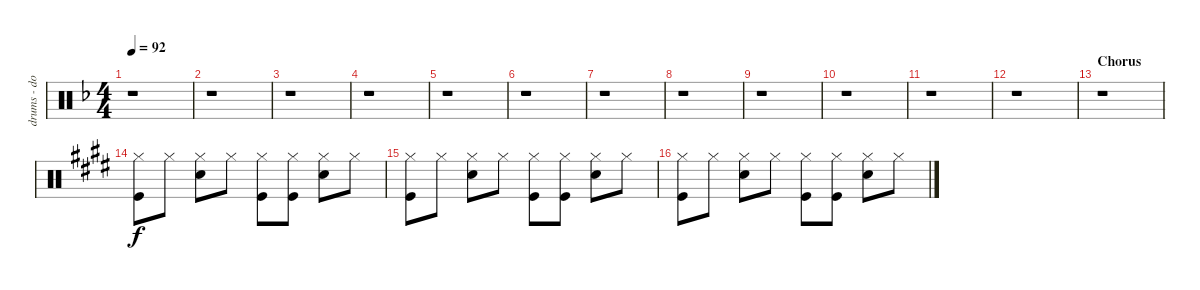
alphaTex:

\track ("drums - dodgy" "drums - do") {instrument percussion}
\staff {score}
\articulation defaults
\ts (4 4)
\tempo 92
\clef neutral
\ks f
r.1{dy f} |
r.1 |
r.1 |
r.1 |
r.1 |
r.1 |
r.1 |
r.1 |
r.1 |
r.1 |
r.1 |
r.1 |
\section ("" "Chorus")
r.1 |
\ks e
("Hi-Hat (closed)" "Kick (hit)").8 "Hi-Hat (closed)".8 ("Hi-Hat (closed)" "Snare (hit) 2").8 "Hi-Hat (closed)".8 ("Hi-Hat (closed)" "Kick (hit)").8 ("Hi-Hat (closed)" "Kick (hit)").8 ("Hi-Hat (closed)" "Snare (hit) 2").8 "Hi-Hat (closed)".8 |
("Hi-Hat (closed)" "Kick (hit)").8 "Hi-Hat (closed)".8 ("Hi-Hat (closed)" "Snare (hit) 2").8 "Hi-Hat (closed)".8 ("Hi-Hat (closed)" "Kick (hit)").8 ("Hi-Hat (closed)" "Kick (hit)").8 ("Hi-Hat (closed)" "Snare (hit) 2").8 "Hi-Hat (closed)".8 |
("Hi-Hat (closed)" "Kick (hit)").8 "Hi-Hat (closed)".8 ("Hi-Hat (closed)" "Snare (hit) 2").8 "Hi-Hat (closed)".8 ("Hi-Hat (closed)" "Kick (hit)").8 ("Hi-Hat (closed)" "Kick (hit)").8 ("Hi-Hat (closed)" "Snare (hit) 2").8 "Hi-Hat (closed)".8
